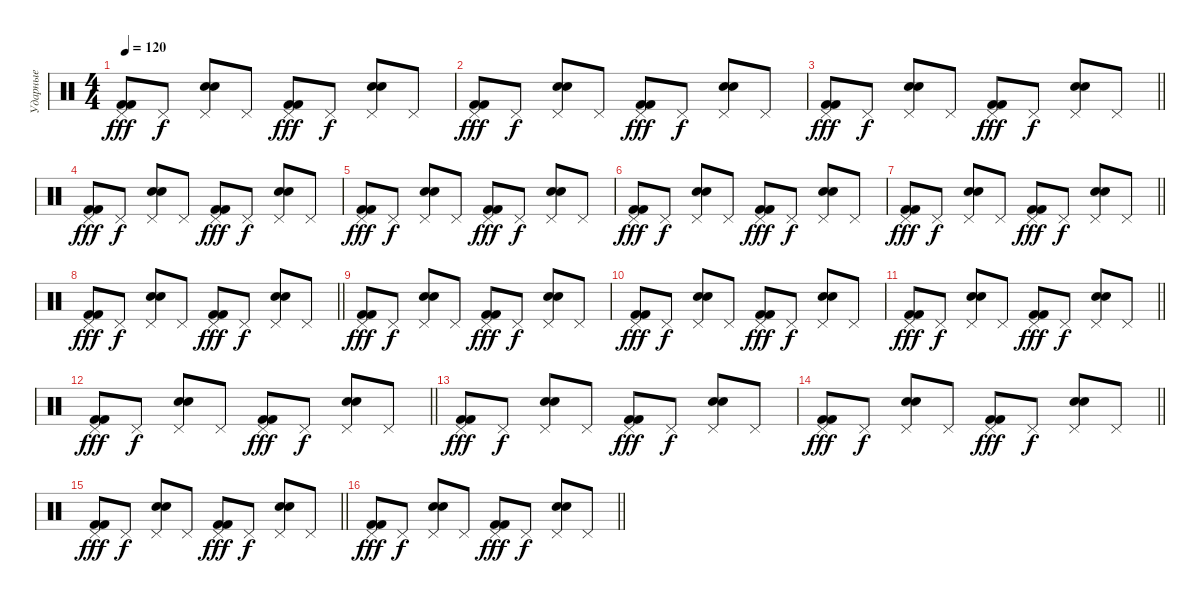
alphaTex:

\track ("Ударные" "Ударные") {solo instrument percussion}
\staff {score}
\articulation defaults
\ts (4 4)
\tempo 120
\clef neutral
\ks c
("Kick (hit) 2" "Kick (hit) 2" "Pedal Hi-Hat (hit)").8{dy fff} "Pedal Hi-Hat (hit)".8{dy f} ("Electric Snare (hit)" "Electric Snare (hit)" "Pedal Hi-Hat (hit)").8 "Pedal Hi-Hat (hit)".8 ("Kick (hit) 2" "Kick (hit) 2" "Pedal Hi-Hat (hit)").8{dy fff} "Pedal Hi-Hat (hit)".8{dy f} ("Electric Snare (hit)" "Electric Snare (hit)" "Pedal Hi-Hat (hit)").8 "Pedal Hi-Hat (hit)".8 |
("Kick (hit) 2" "Kick (hit) 2" "Pedal Hi-Hat (hit)").8{dy fff} "Pedal Hi-Hat (hit)".8{dy f} ("Electric Snare (hit)" "Electric Snare (hit)" "Pedal Hi-Hat (hit)").8 "Pedal Hi-Hat (hit)".8 ("Kick (hit) 2" "Kick (hit) 2" "Pedal Hi-Hat (hit)").8{dy fff} "Pedal Hi-Hat (hit)".8{dy f} ("Electric Snare (hit)" "Electric Snare (hit)" "Pedal Hi-Hat (hit)").8 "Pedal Hi-Hat (hit)".8 |
\barLineRight lightlight
("Kick (hit) 2" "Kick (hit) 2" "Pedal Hi-Hat (hit)").8{dy fff} "Pedal Hi-Hat (hit)".8{dy f} ("Electric Snare (hit)" "Electric Snare (hit)" "Pedal Hi-Hat (hit)").8 "Pedal Hi-Hat (hit)".8 ("Kick (hit) 2" "Kick (hit) 2" "Pedal Hi-Hat (hit)").8{dy fff} "Pedal Hi-Hat (hit)".8{dy f} ("Electric Snare (hit)" "Electric Snare (hit)" "Pedal Hi-Hat (hit)").8 "Pedal Hi-Hat (hit)".8 |
("Kick (hit) 2" "Kick (hit) 2" "Pedal Hi-Hat (hit)").8{dy fff} "Pedal Hi-Hat (hit)".8{dy f} ("Electric Snare (hit)" "Electric Snare (hit)" "Pedal Hi-Hat (hit)").8 "Pedal Hi-Hat (hit)".8 ("Kick (hit) 2" "Kick (hit) 2" "Pedal Hi-Hat (hit)").8{dy fff} "Pedal Hi-Hat (hit)".8{dy f} ("Electric Snare (hit)" "Electric Snare (hit)" "Pedal Hi-Hat (hit)").8 "Pedal Hi-Hat (hit)".8 |
("Kick (hit) 2" "Kick (hit) 2" "Pedal Hi-Hat (hit)").8{dy fff} "Pedal Hi-Hat (hit)".8{dy f} ("Electric Snare (hit)" "Electric Snare (hit)" "Pedal Hi-Hat (hit)").8 "Pedal Hi-Hat (hit)".8 ("Kick (hit) 2" "Kick (hit) 2" "Pedal Hi-Hat (hit)").8{dy fff} "Pedal Hi-Hat (hit)".8{dy f} ("Electric Snare (hit)" "Electric Snare (hit)" "Pedal Hi-Hat (hit)").8 "Pedal Hi-Hat (hit)".8 |
("Kick (hit) 2" "Kick (hit) 2" "Pedal Hi-Hat (hit)").8{dy fff} "Pedal Hi-Hat (hit)".8{dy f} ("Electric Snare (hit)" "Electric Snare (hit)" "Pedal Hi-Hat (hit)").8 "Pedal Hi-Hat (hit)".8 ("Kick (hit) 2" "Kick (hit) 2" "Pedal Hi-Hat (hit)").8{dy fff} "Pedal Hi-Hat (hit)".8{dy f} ("Electric Snare (hit)" "Electric Snare (hit)" "Pedal Hi-Hat (hit)").8 "Pedal Hi-Hat (hit)".8 |
\barLineRight lightlight
("Kick (hit) 2" "Kick (hit) 2" "Pedal Hi-Hat (hit)").8{dy fff} "Pedal Hi-Hat (hit)".8{dy f} ("Electric Snare (hit)" "Electric Snare (hit)" "Pedal Hi-Hat (hit)").8 "Pedal Hi-Hat (hit)".8 ("Kick (hit) 2" "Kick (hit) 2" "Pedal Hi-Hat (hit)").8{dy fff} "Pedal Hi-Hat (hit)".8{dy f} ("Electric Snare (hit)" "Electric Snare (hit)" "Pedal Hi-Hat (hit)").8 "Pedal Hi-Hat (hit)".8 |
\barLineRight lightlight
("Kick (hit) 2" "Kick (hit) 2" "Pedal Hi-Hat (hit)").8{dy fff} "Pedal Hi-Hat (hit)".8{dy f} ("Electric Snare (hit)" "Electric Snare (hit)" "Pedal Hi-Hat (hit)").8 "Pedal Hi-Hat (hit)".8 ("Kick (hit) 2" "Kick (hit) 2" "Pedal Hi-Hat (hit)").8{dy fff} "Pedal Hi-Hat (hit)".8{dy f} ("Electric Snare (hit)" "Electric Snare (hit)" "Pedal Hi-Hat (hit)").8 "Pedal Hi-Hat (hit)".8 |
("Kick (hit) 2" "Kick (hit) 2" "Pedal Hi-Hat (hit)").8{dy fff} "Pedal Hi-Hat (hit)".8{dy f} ("Electric Snare (hit)" "Electric Snare (hit)" "Pedal Hi-Hat (hit)").8 "Pedal Hi-Hat (hit)".8 ("Kick (hit) 2" "Kick (hit) 2" "Pedal Hi-Hat (hit)").8{dy fff} "Pedal Hi-Hat (hit)".8{dy f} ("Electric Snare (hit)" "Electric Snare (hit)" "Pedal Hi-Hat (hit)").8 "Pedal Hi-Hat (hit)".8 |
("Kick (hit) 2" "Kick (hit) 2" "Pedal Hi-Hat (hit)").8{dy fff} "Pedal Hi-Hat (hit)".8{dy f} ("Electric Snare (hit)" "Electric Snare (hit)" "Pedal Hi-Hat (hit)").8 "Pedal Hi-Hat (hit)".8 ("Kick (hit) 2" "Kick (hit) 2" "Pedal Hi-Hat (hit)").8{dy fff} "Pedal Hi-Hat (hit)".8{dy f} ("Electric Snare (hit)" "Electric Snare (hit)" "Pedal Hi-Hat (hit)").8 "Pedal Hi-Hat (hit)".8 |
\barLineRight lightlight
("Kick (hit) 2" "Kick (hit) 2" "Pedal Hi-Hat (hit)").8{dy fff} "Pedal Hi-Hat (hit)".8{dy f} ("Electric Snare (hit)" "Electric Snare (hit)" "Pedal Hi-Hat (hit)").8 "Pedal Hi-Hat (hit)".8 ("Kick (hit) 2" "Kick (hit) 2" "Pedal Hi-Hat (hit)").8{dy fff} "Pedal Hi-Hat (hit)".8{dy f} ("Electric Snare (hit)" "Electric Snare (hit)" "Pedal Hi-Hat (hit)").8 "Pedal Hi-Hat (hit)".8 |
\barLineRight lightlight
("Kick (hit) 2" "Kick (hit) 2" "Pedal Hi-Hat (hit)").8{dy fff} "Pedal Hi-Hat (hit)".8{dy f} ("Electric Snare (hit)" "Electric Snare (hit)" "Pedal Hi-Hat (hit)").8 "Pedal Hi-Hat (hit)".8 ("Kick (hit) 2" "Kick (hit) 2" "Pedal Hi-Hat (hit)").8{dy fff} "Pedal Hi-Hat (hit)".8{dy f} ("Electric Snare (hit)" "Electric Snare (hit)" "Pedal Hi-Hat (hit)").8 "Pedal Hi-Hat (hit)".8 |
("Kick (hit) 2" "Kick (hit) 2" "Pedal Hi-Hat (hit)").8{dy fff} "Pedal Hi-Hat (hit)".8{dy f} ("Electric Snare (hit)" "Electric Snare (hit)" "Pedal Hi-Hat (hit)").8 "Pedal Hi-Hat (hit)".8 ("Kick (hit) 2" "Kick (hit) 2" "Pedal Hi-Hat (hit)").8{dy fff} "Pedal Hi-Hat (hit)".8{dy f} ("Electric Snare (hit)" "Electric Snare (hit)" "Pedal Hi-Hat (hit)").8 "Pedal Hi-Hat (hit)".8 |
\barLineRight lightlight
("Kick (hit) 2" "Kick (hit) 2" "Pedal Hi-Hat (hit)").8{dy fff} "Pedal Hi-Hat (hit)".8{dy f} ("Electric Snare (hit)" "Electric Snare (hit)" "Pedal Hi-Hat (hit)").8 "Pedal Hi-Hat (hit)".8 ("Kick (hit) 2" "Kick (hit) 2" "Pedal Hi-Hat (hit)").8{dy fff} "Pedal Hi-Hat (hit)".8{dy f} ("Electric Snare (hit)" "Electric Snare (hit)" "Pedal Hi-Hat (hit)").8 "Pedal Hi-Hat (hit)".8 |
\barLineRight lightlight
("Kick (hit) 2" "Kick (hit) 2" "Pedal Hi-Hat (hit)").8{dy fff} "Pedal Hi-Hat (hit)".8{dy f} ("Electric Snare (hit)" "Electric Snare (hit)" "Pedal Hi-Hat (hit)").8 "Pedal Hi-Hat (hit)".8 ("Kick (hit) 2" "Kick (hit) 2" "Pedal Hi-Hat (hit)").8{dy fff} "Pedal Hi-Hat (hit)".8{dy f} ("Electric Snare (hit)" "Electric Snare (hit)" "Pedal Hi-Hat (hit)").8 "Pedal Hi-Hat (hit)".8 |
\barLineRight lightlight
("Kick (hit) 2" "Kick (hit) 2" "Pedal Hi-Hat (hit)").8{dy fff} "Pedal Hi-Hat (hit)".8{dy f} ("Electric Snare (hit)" "Electric Snare (hit)" "Pedal Hi-Hat (hit)").8 "Pedal Hi-Hat (hit)".8 ("Kick (hit) 2" "Kick (hit) 2" "Pedal Hi-Hat (hit)").8{dy fff} "Pedal Hi-Hat (hit)".8{dy f} ("Electric Snare (hit)" "Electric Snare (hit)" "Pedal Hi-Hat (hit)").8 "Pedal Hi-Hat (hit)".8
